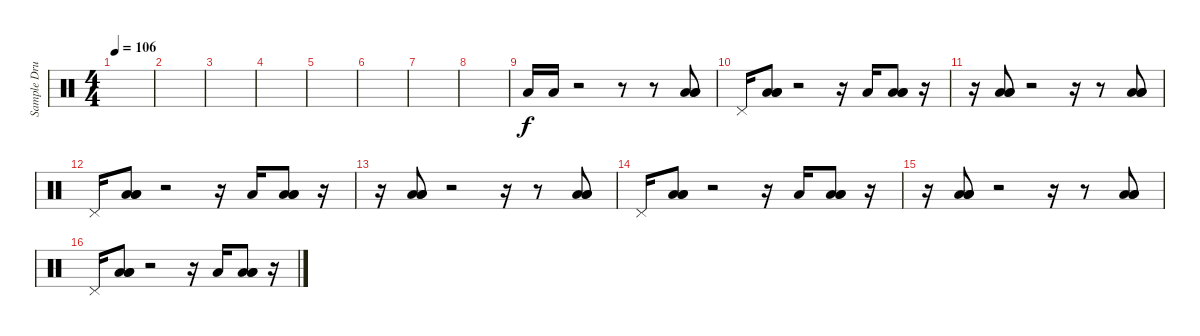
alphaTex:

\track ("Sample Drums(Lethal)" "Sample Dru") {instrument percussion}
\staff {score}
\articulation defaults
\ts (4 4)
\tempo 106
\clef neutral
\ks c
|
|
|
|
|
|
|
|
"Low Floor Tom (hit)".16 "Low Floor Tom (hit)".16 r.2 r.8 r.8 ("Low Floor Tom (hit)" "Low Floor Tom (hit)" "Low Floor Tom (hit)").8 |
"Pedal Hi-Hat (hit)".16 ("Low Floor Tom (hit)" "Low Floor Tom (hit)" "Low Floor Tom (hit)").8 r.2 r.16 "Low Floor Tom (hit)".16 ("Low Floor Tom (hit)" "Low Floor Tom (hit)" "Low Floor Tom (hit)").8 r.16 |
r.16 ("Low Floor Tom (hit)" "Low Floor Tom (hit)" "Low Floor Tom (hit)").8 r.2 r.16 r.8 ("Low Floor Tom (hit)" "Low Floor Tom (hit)" "Low Floor Tom (hit)").8 |
"Pedal Hi-Hat (hit)".16 ("Low Floor Tom (hit)" "Low Floor Tom (hit)" "Low Floor Tom (hit)").8 r.2 r.16 "Low Floor Tom (hit)".16 ("Low Floor Tom (hit)" "Low Floor Tom (hit)" "Low Floor Tom (hit)").8 r.16 |
r.16 ("Low Floor Tom (hit)" "Low Floor Tom (hit)" "Low Floor Tom (hit)").8 r.2 r.16 r.8 ("Low Floor Tom (hit)" "Low Floor Tom (hit)" "Low Floor Tom (hit)").8 |
"Pedal Hi-Hat (hit)".16 ("Low Floor Tom (hit)" "Low Floor Tom (hit)" "Low Floor Tom (hit)").8 r.2 r.16 "Low Floor Tom (hit)".16 ("Low Floor Tom (hit)" "Low Floor Tom (hit)" "Low Floor Tom (hit)").8 r.16 |
r.16 ("Low Floor Tom (hit)" "Low Floor Tom (hit)" "Low Floor Tom (hit)").8 r.2 r.16 r.8 ("Low Floor Tom (hit)" "Low Floor Tom (hit)" "Low Floor Tom (hit)").8 |
"Pedal Hi-Hat (hit)".16 ("Low Floor Tom (hit)" "Low Floor Tom (hit)" "Low Floor Tom (hit)").8 r.2 r.16 "Low Floor Tom (hit)".16 ("Low Floor Tom (hit)" "Low Floor Tom (hit)" "Low Floor Tom (hit)").8 r.16
